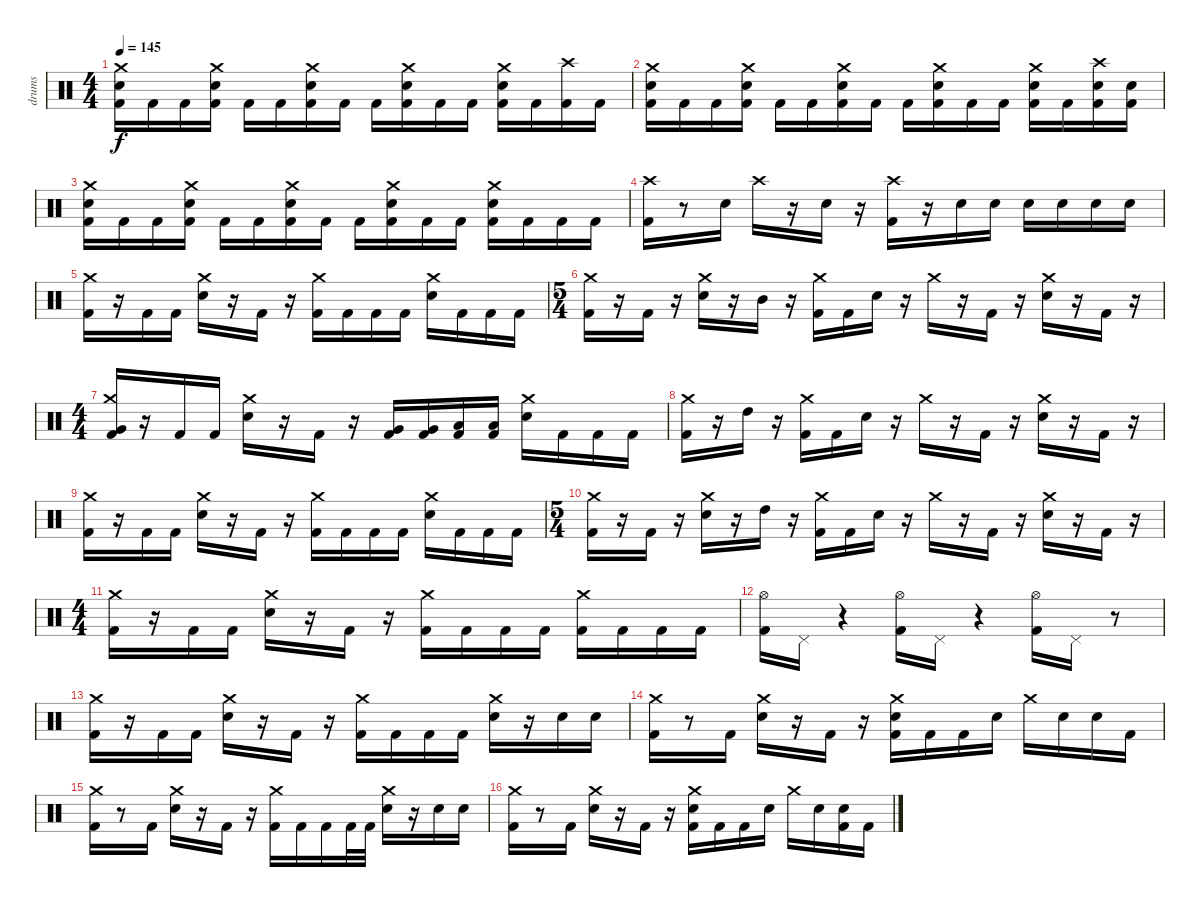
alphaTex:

\track ("drums" "drums") {instrument percussion}
\staff {score}
\articulation defaults
\ts (4 4)
\tempo 145
\clef neutral
\ks c
("Kick (hit) 2" "Snare (hit) 2" "Crash medium (hit)").16{dy f} "Kick (hit) 2".16 "Kick (hit) 2".16 ("Kick (hit) 2" "Snare (hit) 2" "Crash medium (hit)").16 "Kick (hit) 2".16 "Kick (hit) 2".16 ("Kick (hit) 2" "Snare (hit) 2" "Crash medium (hit)").16 "Kick (hit) 2".16 "Kick (hit) 2".16 ("Kick (hit) 2" "Snare (hit) 2" "Crash medium (hit)").16 "Kick (hit) 2".16 "Kick (hit) 2".16 ("Kick (hit) 2" "Snare (hit) 2" "Crash medium (hit)").16 "Kick (hit) 2".16 ("Kick (hit) 2" "Crash high (hit)").16 "Kick (hit) 2".16 |
("Kick (hit) 2" "Snare (hit) 2" "Crash medium (hit)").16 "Kick (hit) 2".16 "Kick (hit) 2".16 ("Kick (hit) 2" "Snare (hit) 2" "Crash medium (hit)").16 "Kick (hit) 2".16 "Kick (hit) 2".16 ("Kick (hit) 2" "Snare (hit) 2" "Crash medium (hit)").16 "Kick (hit) 2".16 "Kick (hit) 2".16 ("Kick (hit) 2" "Snare (hit) 2" "Crash medium (hit)").16 "Kick (hit) 2".16 "Kick (hit) 2".16 ("Kick (hit) 2" "Snare (hit) 2" "Crash medium (hit)").16 "Kick (hit) 2".16 ("Kick (hit) 2" "Snare (hit) 2" "Crash high (hit)").16 ("Kick (hit) 2" "Snare (hit) 2").16 |
("Kick (hit) 2" "Snare (hit) 2" "Crash medium (hit)").16 "Kick (hit) 2".16 "Kick (hit) 2".16 ("Kick (hit) 2" "Snare (hit) 2" "Crash medium (hit)").16 "Kick (hit) 2".16 "Kick (hit) 2".16 ("Kick (hit) 2" "Snare (hit) 2" "Crash medium (hit)").16 "Kick (hit) 2".16 "Kick (hit) 2".16 ("Kick (hit) 2" "Snare (hit) 2" "Crash medium (hit)").16 "Kick (hit) 2".16 "Kick (hit) 2".16 ("Kick (hit) 2" "Snare (hit) 2" "Crash medium (hit)").16 "Kick (hit) 2".16 "Kick (hit) 2".16 "Kick (hit) 2".16 |
("Kick (hit) 2" "Crash high (hit)").16 r.8 "Snare (hit) 2".16 "Crash high (hit)".16 r.16 "Snare (hit) 2".16 r.16 ("Kick (hit) 2" "Crash high (hit)").16 r.16 "Snare (hit) 2".16 "Snare (hit) 2".16 "Snare (hit) 2".16 "Snare (hit) 2".16 "Snare (hit) 2".16 "Snare (hit) 2".16 |
("Kick (hit) 2" "Crash medium (hit)").16 r.16 "Kick (hit) 2".16 "Kick (hit) 2".16 ("Snare (hit) 2" "Crash medium (hit)").16 r.16 "Kick (hit) 2".16 r.16 ("Kick (hit) 2" "Crash medium (hit)").16 "Kick (hit) 2".16 "Kick (hit) 2".16 "Kick (hit) 2".16 ("Snare (hit) 2" "Crash medium (hit)").16 "Kick (hit) 2".16 "Kick (hit) 2".16 "Kick (hit) 2".16 |
\ts (5 4)
("Kick (hit) 2" "Crash medium (hit)").16 r.16 "Kick (hit) 2".16 r.16 ("Snare (hit) 2" "Crash medium (hit)").16 r.16 "Mid Tom (hit)".16 r.16 ("Kick (hit) 2" "Crash medium (hit)").16 "Kick (hit) 2".16 "Snare (hit) 2".16 r.16 "Crash medium (hit)".16 r.16 "Kick (hit) 2".16 r.16 ("Snare (hit) 2" "Crash medium (hit)").16 r.16 "Kick (hit) 2".16 r.16 |
\ts (4 4)
("Kick (hit) 2" "Very Low Tom (hit)" "Crash medium (hit)").16 r.16 "Kick (hit) 2".16 "Kick (hit) 2".16 ("Snare (hit) 2" "Crash medium (hit)").16 r.16 "Kick (hit) 2".16 r.16 ("Kick (hit) 2" "Very Low Tom (hit)").16 ("Kick (hit) 2" "Very Low Tom (hit)").16 ("Kick (hit) 2" "Low Floor Tom (hit)").16 ("Kick (hit) 2" "Low Floor Tom (hit)").16 ("Snare (hit) 2" "Crash medium (hit)").16 "Kick (hit) 2".16 "Kick (hit) 2".16 "Kick (hit) 2".16 |
("Kick (hit) 2" "Crash medium (hit)").16 r.16 "High Tom (hit)".16 r.16 ("Kick (hit) 2" "Crash medium (hit)").16 "Kick (hit) 2".16 "Snare (hit) 2".16 r.16 "Crash medium (hit)".16 r.16 "Kick (hit) 2".16 r.16 ("Snare (hit) 2" "Crash medium (hit)").16 r.16 "Kick (hit) 2".16 r.16 |
("Kick (hit) 2" "Crash medium (hit)").16 r.16 "Kick (hit) 2".16 "Kick (hit) 2".16 ("Snare (hit) 2" "Crash medium (hit)").16 r.16 "Kick (hit) 2".16 r.16 ("Kick (hit) 2" "Crash medium (hit)").16 "Kick (hit) 2".16 "Kick (hit) 2".16 "Kick (hit) 2".16 ("Snare (hit) 2" "Crash medium (hit)").16 "Kick (hit) 2".16 "Kick (hit) 2".16 "Kick (hit) 2".16 |
\ts (5 4)
("Kick (hit) 2" "Crash medium (hit)").16 r.16 "Kick (hit) 2".16 r.16 ("Snare (hit) 2" "Crash medium (hit)").16 r.16 "High Tom (hit)".16 r.16 ("Kick (hit) 2" "Crash medium (hit)").16 "Kick (hit) 2".16 "Snare (hit) 2".16 r.16 "Crash medium (hit)".16 r.16 "Kick (hit) 2".16 r.16 ("Snare (hit) 2" "Crash medium (hit)").16 r.16 "Kick (hit) 2".16 r.16 |
\ts (4 4)
("Kick (hit) 2" "Crash medium (hit)").16 r.16 "Kick (hit) 2".16 "Kick (hit) 2".16 ("Snare (hit) 2" "Crash medium (hit)").16 r.16 "Kick (hit) 2".16 r.16 ("Kick (hit) 2" "Crash medium (hit)").16 "Kick (hit) 2".16 "Kick (hit) 2".16 "Kick (hit) 2".16 ("Kick (hit) 2" "Crash medium (hit)").16 "Kick (hit) 2".16 "Kick (hit) 2".16 "Kick (hit) 2".16 |
("Kick (hit) 2" "Hi-Hat (open)").16 "Pedal Hi-Hat (hit)".16 r.4 ("Kick (hit) 2" "Hi-Hat (open)").16 "Pedal Hi-Hat (hit)".16 r.4 ("Kick (hit) 2" "Hi-Hat (open)").16 "Pedal Hi-Hat (hit)".16 r.8 |
("Kick (hit) 2" "Crash medium (hit)").16 r.16 "Kick (hit) 2".16 "Kick (hit) 2".16 ("Snare (hit) 2" "Crash medium (hit)").16 r.16 "Kick (hit) 2".16 r.16 ("Kick (hit) 2" "Crash medium (hit)").16 "Kick (hit) 2".16 "Kick (hit) 2".16 "Kick (hit) 2".16 ("Snare (hit) 2" "Crash medium (hit)").16 r.16 "Snare (hit) 2".16 "Snare (hit) 2".16 |
("Kick (hit) 2" "Crash medium (hit)").16 r.8 "Kick (hit) 2".16 ("Snare (hit) 2" "Crash medium (hit)").16 r.16 "Kick (hit) 2".16 r.16 ("Kick (hit) 2" "Snare (hit) 2" "Crash medium (hit)").16 "Kick (hit) 2".16 "Kick (hit) 2".16 "Snare (hit) 2".16 "Crash medium (hit)".16 "Snare (hit) 2".16 "Snare (hit) 2".16 "Kick (hit) 2".16 |
("Kick (hit) 2" "Crash medium (hit)").16 r.8 "Kick (hit) 2".16 ("Snare (hit) 2" "Crash medium (hit)").16 r.16 "Kick (hit) 2".16 r.16 ("Kick (hit) 2" "Crash medium (hit)").16 "Kick (hit) 2".16 "Kick (hit) 2".16 "Kick (hit) 2".32 "Kick (hit) 2".32 ("Snare (hit) 2" "Crash medium (hit)").16 r.16 "Snare (hit) 2".16 "Snare (hit) 2".16 |
("Kick (hit) 2" "Crash medium (hit)").16 r.8 "Kick (hit) 2".16 ("Snare (hit) 2" "Crash medium (hit)").16 r.16 "Kick (hit) 2".16 r.16 ("Kick (hit) 2" "Snare (hit) 2" "Crash medium (hit)").16 "Kick (hit) 2".16 "Kick (hit) 2".16 "Snare (hit) 2".16 "Crash medium (hit)".16 "Snare (hit) 2".16 ("Kick (hit) 2" "Snare (hit) 2").16 "Kick (hit) 2".16
